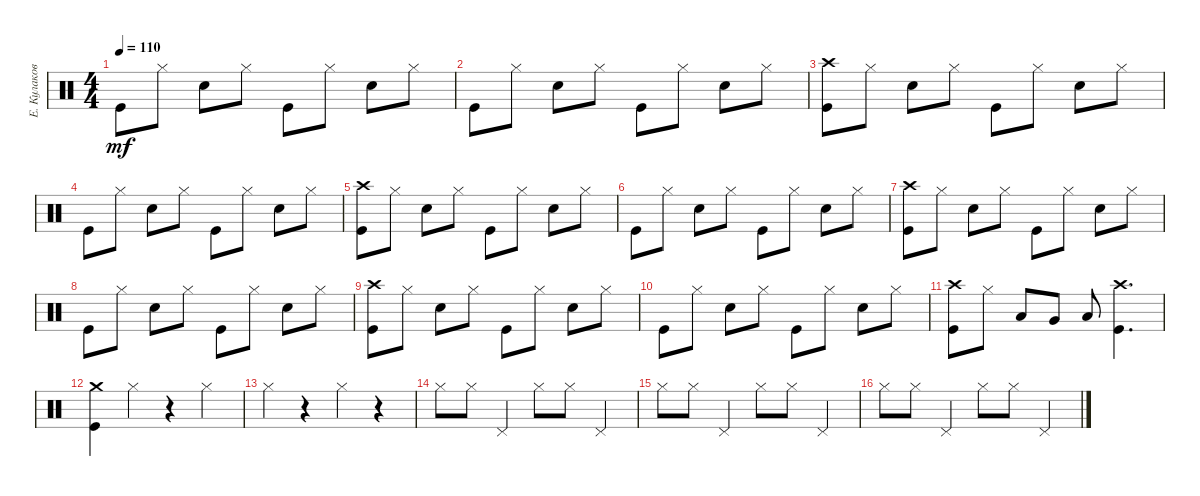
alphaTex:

\track ("Е. Кулаков" "Е. Кулаков") {instrument percussion}
\staff {score}
\articulation defaults
\ts (4 4)
\tempo 110
\clef neutral
\ks c "Kick (hit)".8{dy mf} "Hi-Hat (closed)".8 "Snare (hit) 2".8 "Hi-Hat (closed)".8 "Kick (hit)".8 "Hi-Hat (closed)".8 "Snare (hit) 2".8 "Hi-Hat (closed)".8
|
"Kick (hit)".8 "Hi-Hat (closed)".8 "Snare (hit) 2".8 "Hi-Hat (closed)".8 "Kick (hit)".8 "Hi-Hat (closed)".8 "Snare (hit) 2".8 "Hi-Hat (closed)".8 |
("Kick (hit)" "Crash high (hit)").8 "Hi-Hat (closed)".8 "Snare (hit) 2".8 "Hi-Hat (closed)".8 "Kick (hit)".8 "Hi-Hat (closed)".8 "Snare (hit) 2".8 "Hi-Hat (closed)".8 |
"Kick (hit)".8 "Hi-Hat (closed)".8 "Snare (hit) 2".8 "Hi-Hat (closed)".8 "Kick (hit)".8 "Hi-Hat (closed)".8 "Snare (hit) 2".8 "Hi-Hat (closed)".8 |
("Kick (hit)" "Crash high (hit)").8 "Hi-Hat (closed)".8 "Snare (hit) 2".8 "Hi-Hat (closed)".8 "Kick (hit)".8 "Hi-Hat (closed)".8 "Snare (hit) 2".8 "Hi-Hat (closed)".8 |
"Kick (hit)".8 "Hi-Hat (closed)".8 "Snare (hit) 2".8 "Hi-Hat (closed)".8 "Kick (hit)".8 "Hi-Hat (closed)".8 "Snare (hit) 2".8 "Hi-Hat (closed)".8 |
("Kick (hit)" "Crash high (hit)").8 "Hi-Hat (closed)".8 "Snare (hit) 2".8 "Hi-Hat (closed)".8 "Kick (hit)".8 "Hi-Hat (closed)".8 "Snare (hit) 2".8 "Hi-Hat (closed)".8 |
"Kick (hit)".8 "Hi-Hat (closed)".8 "Snare (hit) 2".8 "Hi-Hat (closed)".8 "Kick (hit)".8 "Hi-Hat (closed)".8 "Snare (hit) 2".8 "Hi-Hat (closed)".8 |
("Kick (hit)" "Crash high (hit)").8 "Hi-Hat (closed)".8 "Snare (hit) 2".8 "Hi-Hat (closed)".8 "Kick (hit)".8 "Hi-Hat (closed)".8 "Snare (hit) 2".8 "Hi-Hat (closed)".8 |
"Kick (hit)".8 "Hi-Hat (closed)".8 "Snare (hit) 2".8 "Hi-Hat (closed)".8 "Kick (hit)".8 "Hi-Hat (closed)".8 "Snare (hit) 2".8 "Hi-Hat (closed)".8 |
("Kick (hit)" "Crash high (hit)").8 "Hi-Hat (closed)".8 "Low Tom (hit)".8 "Very Low Tom (hit)".8 "Low Floor Tom (hit)".8 ("Kick (hit)" "Crash high (hit)").4{d} |
("Kick (hit)" "Crash medium (hit)").4 "Hi-Hat (closed)".4 r.4 "Hi-Hat (closed)".4 |
"Hi-Hat (closed)".4 r.4 "Hi-Hat (closed)".4 r.4 |
"Hi-Hat (closed)".8 "Hi-Hat (closed)".8 "Pedal Hi-Hat (hit)".4 "Hi-Hat (closed)".8 "Hi-Hat (closed)".8 "Pedal Hi-Hat (hit)".4 |
"Hi-Hat (closed)".8 "Hi-Hat (closed)".8 "Pedal Hi-Hat (hit)".4 "Hi-Hat (closed)".8 "Hi-Hat (closed)".8 "Pedal Hi-Hat (hit)".4 |
"Hi-Hat (closed)".8 "Hi-Hat (closed)".8 "Pedal Hi-Hat (hit)".4 "Hi-Hat (closed)".8 "Hi-Hat (closed)".8 "Pedal Hi-Hat (hit)".4
